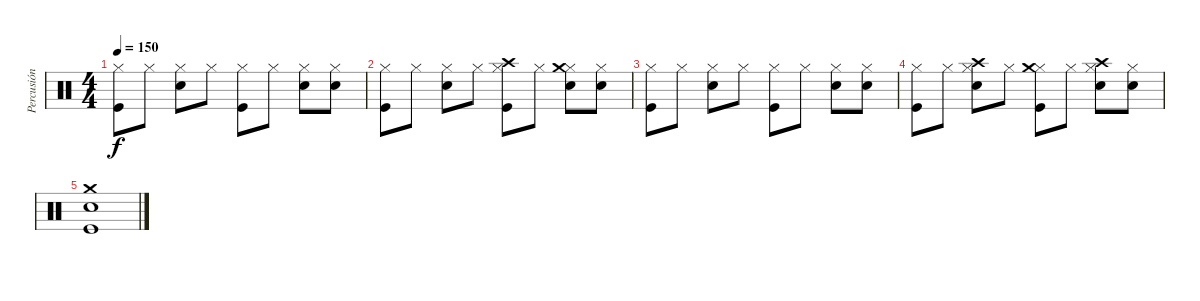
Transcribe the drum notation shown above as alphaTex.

\track ("Percusión" "Percusión") {instrument percussion}
\staff {score}
\articulation defaults
\ts (4 4)
\tempo 150
\clef neutral
\ks c
("Hi-Hat (closed)" "Kick (hit)").8{dy f} "Hi-Hat (closed)".8 ("Hi-Hat (closed)" "Snare (hit) 2").8 "Hi-Hat (closed)".8 ("Hi-Hat (closed)" "Kick (hit)").8 "Hi-Hat (closed)".8 ("Hi-Hat (closed)" "Snare (hit) 2").8 ("Hi-Hat (closed)" "Snare (hit) 2").8 |
("Hi-Hat (closed)" "Kick (hit)").8 "Hi-Hat (closed)".8 ("Hi-Hat (closed)" "Snare (hit) 2").8 "Hi-Hat (closed)".8 ("Hi-Hat (closed)" "Kick (hit)" "Crash high (hit)").8 "Hi-Hat (closed)".8 ("Hi-Hat (closed)" "Snare (hit) 2" "Crash medium (hit)").8 ("Hi-Hat (closed)" "Snare (hit) 2").8 |
("Hi-Hat (closed)" "Kick (hit)").8 "Hi-Hat (closed)".8 ("Hi-Hat (closed)" "Snare (hit) 2").8 "Hi-Hat (closed)".8 ("Hi-Hat (closed)" "Kick (hit)").8 "Hi-Hat (closed)".8 ("Hi-Hat (closed)" "Snare (hit) 2").8 ("Hi-Hat (closed)" "Snare (hit) 2").8 |
("Hi-Hat (closed)" "Kick (hit)").8 "Hi-Hat (closed)".8 ("Hi-Hat (closed)" "Snare (hit) 2" "Crash high (hit)").8 "Hi-Hat (closed)".8 ("Hi-Hat (closed)" "Kick (hit)" "Crash medium (hit)").8 "Hi-Hat (closed)".8 ("Hi-Hat (closed)" "Snare (hit) 2" "Crash high (hit)").8 ("Hi-Hat (closed)" "Snare (hit) 2").8 |
("Kick (hit)" "Snare (hit) 2" "Crash medium (hit)").1
